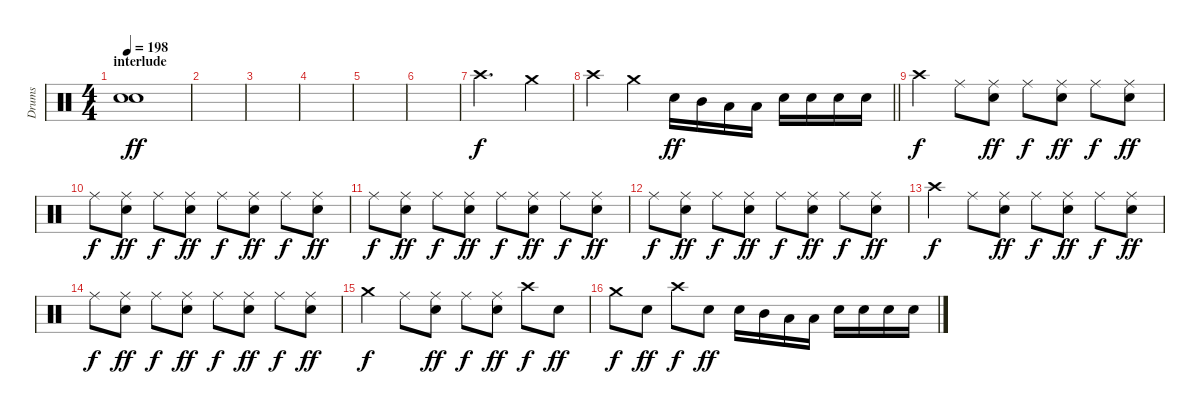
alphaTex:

\track ("Drums" "Drums") {instrument percussion}
\staff {score}
\articulation defaults
\ts (4 4)
\section ("" "interlude")
\tempo 198
\clef neutral
\ks c
("Snare (hit) 2" "Snare (hit) 2").1{dy ff} |
|
|
|
|
|
"Crash high (hit)".2{d dy f} "Crash medium (hit)".4 |
\barLineRight lightlight "Crash high (hit)".4 "Crash medium (hit)".4 "Snare (hit) 2".16{dy ff} "Mid Tom (hit)".16 "Low Tom (hit)".16 "Low Tom (hit)".16 "Snare (hit) 2".16 "Snare (hit) 2".16 "Snare (hit) 2".16 "Snare (hit) 2".16
|
\section ("" "")
"Crash high (hit)".4{dy f} "Ride (middle)".8 ("Ride (middle)" "Snare (hit) 2").8{dy ff} "Ride (middle)".8{dy f} ("Ride (middle)" "Snare (hit) 2").8{dy ff} "Ride (middle)".8{dy f} ("Ride (middle)" "Snare (hit) 2").8{dy ff} |
"Ride (middle)".8{dy f} ("Ride (middle)" "Snare (hit) 2").8{dy ff} "Ride (middle)".8{dy f} ("Ride (middle)" "Snare (hit) 2").8{dy ff} "Ride (middle)".8{dy f} ("Ride (middle)" "Snare (hit) 2").8{dy ff} "Ride (middle)".8{dy f} ("Ride (middle)" "Snare (hit) 2").8{dy ff} |
"Ride (middle)".8{dy f} ("Ride (middle)" "Snare (hit) 2").8{dy ff} "Ride (middle)".8{dy f} ("Ride (middle)" "Snare (hit) 2").8{dy ff} "Ride (middle)".8{dy f} ("Ride (middle)" "Snare (hit) 2").8{dy ff} "Ride (middle)".8{dy f} ("Ride (middle)" "Snare (hit) 2").8{dy ff} |
"Ride (middle)".8{dy f} ("Ride (middle)" "Snare (hit) 2").8{dy ff} "Ride (middle)".8{dy f} ("Ride (middle)" "Snare (hit) 2").8{dy ff} "Ride (middle)".8{dy f} ("Ride (middle)" "Snare (hit) 2").8{dy ff} "Ride (middle)".8{dy f} ("Ride (middle)" "Snare (hit) 2").8{dy ff} |
"Crash high (hit)".4{dy f} "Ride (middle)".8 ("Ride (middle)" "Snare (hit) 2").8{dy ff} "Ride (middle)".8{dy f} ("Ride (middle)" "Snare (hit) 2").8{dy ff} "Ride (middle)".8{dy f} ("Ride (middle)" "Snare (hit) 2").8{dy ff} |
"Ride (middle)".8{dy f} ("Ride (middle)" "Snare (hit) 2").8{dy ff} "Ride (middle)".8{dy f} ("Ride (middle)" "Snare (hit) 2").8{dy ff} "Ride (middle)".8{dy f} ("Ride (middle)" "Snare (hit) 2").8{dy ff} "Ride (middle)".8{dy f} ("Ride (middle)" "Snare (hit) 2").8{dy ff} |
"Crash medium (hit)".4{dy f} "Ride (middle)".8 ("Ride (middle)" "Snare (hit) 2").8{dy ff} "Ride (middle)".8{dy f} ("Ride (middle)" "Snare (hit) 2").8{dy ff} "Crash high (hit)".8{dy f} "Snare (hit) 2".8{dy ff} |
"Crash medium (hit)".8{dy f} "Snare (hit) 2".8{dy ff} "Crash high (hit)".8{dy f} "Snare (hit) 2".8{dy ff} "Snare (hit) 2".16 "Mid Tom (hit)".16 "Low Tom (hit)".16 "Low Tom (hit)".16 "Snare (hit) 2".16 "Snare (hit) 2".16 "Snare (hit) 2".16 "Snare (hit) 2".16
